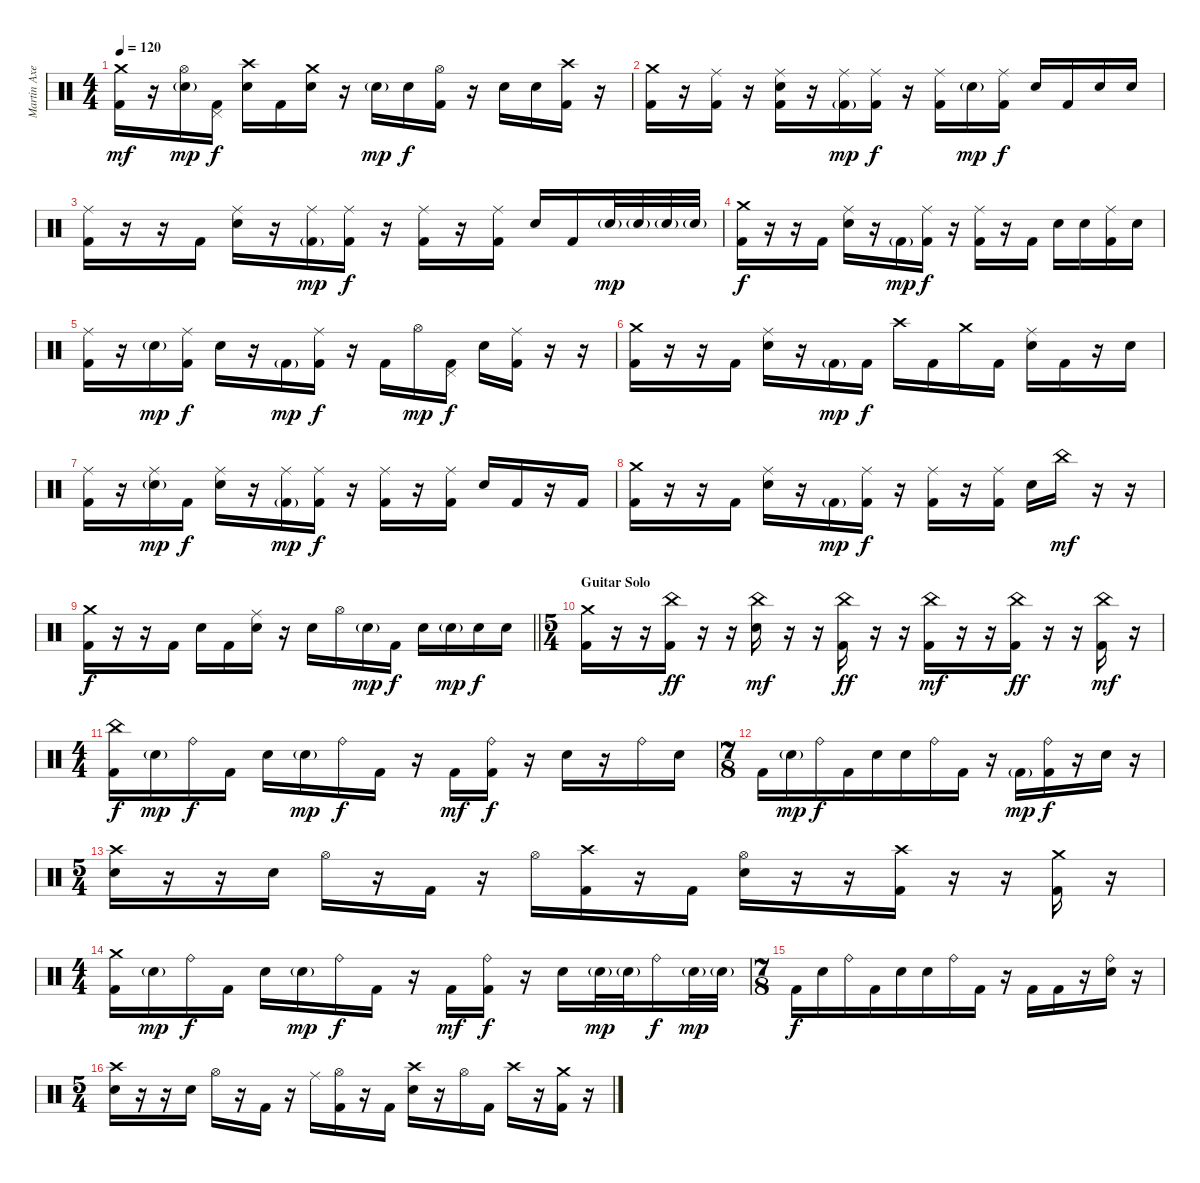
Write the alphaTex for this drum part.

\track ("Martin Axenrot - Drums" "Martin Axe") {instrument percussion}
\staff {score}
\articulation defaults
\ts (4 4)
\tempo 120
\clef neutral
\ks c
("Crash medium (hit)" "Kick (hit) 2").16{dy mf} r.16 ("Hi-Hat (open)" "Snare (hit) 2"{g}).16{dy mp} ("Pedal Hi-Hat (hit)" "Kick (hit) 2").16{dy f} ("Crash high (hit)" "Snare (hit) 2").16 "Kick (hit) 2".16 ("Crash medium (hit)" "Snare (hit) 2").16 r.16 "Snare (hit) 2"{g}.16{dy mp} "Snare (hit) 2".16{dy f} ("Hi-Hat (open)" "Kick (hit) 2").16 r.16 "Snare (hit) 2".16 "Snare (hit) 2".16 ("Crash high (hit)" "Kick (hit) 2").16 r.16 |
("Crash medium (hit)" "Kick (hit) 2").16 r.16 ("Ride (middle)" "Kick (hit) 2").16 r.16 ("Ride (middle)" "Snare (hit) 2" "Kick (hit) 2").16 r.16 ("Ride (middle)" "Kick (hit) 2"{g}).16{dy mp} ("Ride (middle)" "Kick (hit) 2").16{dy f} r.16 ("Ride (middle)" "Kick (hit) 2").16 "Snare (hit) 2"{g}.16{dy mp} ("Ride (middle)" "Kick (hit) 2").16{dy f} "Snare (hit) 2".16 "Kick (hit) 2".16 "Snare (hit) 2".16 "Snare (hit) 2".16 |
("Ride (middle)" "Kick (hit) 2").16 r.16 r.16 "Kick (hit) 2".16 ("Ride (middle)" "Snare (hit) 2").16 r.16 ("Ride (middle)" "Kick (hit) 2"{g}).16{dy mp} ("Ride (middle)" "Kick (hit) 2").16{dy f} r.16 ("Ride (middle)" "Kick (hit) 2").16 r.16 ("Ride (middle)" "Kick (hit) 2").16 "Snare (hit) 2".16 "Kick (hit) 2".16 "Snare (hit) 2"{g}.32{dy mp} "Snare (hit) 2"{g}.32 "Snare (hit) 2"{g}.32 "Snare (hit) 2"{g}.32 |
("Crash medium (hit)" "Kick (hit) 2").16{dy f} r.16 r.16 "Kick (hit) 2".16 ("Ride (middle)" "Snare (hit) 2").16 r.16 "Kick (hit) 2"{g}.16{dy mp} ("Ride (middle)" "Kick (hit) 2").16{dy f} r.16 ("Ride (middle)" "Kick (hit) 2").16 r.16 "Kick (hit) 2".16 "Snare (hit) 2".16 "Snare (hit) 2".16 ("Ride (middle)" "Kick (hit) 2").16 "Snare (hit) 2".16 |
("Ride (middle)" "Kick (hit) 2").16 r.16 "Snare (hit) 2"{g}.16{dy mp} ("Ride (middle)" "Kick (hit) 2").16{dy f} "Snare (hit) 2".16 r.16 "Kick (hit) 2"{g}.16{dy mp} ("Ride (middle)" "Kick (hit) 2").16{dy f} r.16 "Kick (hit) 2".16 "Hi-Hat (open)".16{dy mp} ("Pedal Hi-Hat (hit)" "Kick (hit) 2").16{dy f} "Snare (hit) 2".16 ("Ride (middle)" "Kick (hit) 2").16 r.16 r.16 |
("Crash medium (hit)" "Kick (hit) 2").16 r.16 r.16 "Kick (hit) 2".16 ("Ride (middle)" "Snare (hit) 2").16 r.16 "Kick (hit) 2"{g}.16{dy mp} "Kick (hit) 2".16{dy f} "Crash high (hit)".16 "Kick (hit) 2".16 "Crash medium (hit)".16 "Kick (hit) 2".16 ("Ride (middle)" "Snare (hit) 2").16 "Kick (hit) 2".16 r.16 "Snare (hit) 2".16 |
("Ride (middle)" "Kick (hit) 2").16 r.16 ("Ride (middle)" "Snare (hit) 2"{g}).16{dy mp} "Kick (hit) 2".16{dy f} ("Ride (middle)" "Snare (hit) 2").16 r.16 ("Ride (middle)" "Kick (hit) 2"{g}).16{dy mp} ("Ride (middle)" "Kick (hit) 2").16{dy f} r.16 ("Ride (middle)" "Kick (hit) 2").16 r.16 ("Ride (middle)" "Kick (hit) 2").16 "Snare (hit) 2".16 "Kick (hit) 2".16 r.16 "Kick (hit) 2".16 |
("Crash medium (hit)" "Kick (hit) 2").16 r.16 r.16 "Kick (hit) 2".16 ("Ride (middle)" "Snare (hit) 2").16 r.16 "Kick (hit) 2"{g}.16{dy mp} ("Ride (middle)" "Kick (hit) 2").16{dy f} r.16 ("Ride (middle)" "Kick (hit) 2").16 r.16 ("Ride (middle)" "Kick (hit) 2").16 "Snare (hit) 2".16 "China (hit)".16{dy mf} r.16 r.16 |
\barLineRight lightlight
("Crash medium (hit)" "Kick (hit) 2").16{dy f} r.16 r.16 "Kick (hit) 2".16 "Snare (hit) 2".16 "Kick (hit) 2".16 ("Ride (middle)" "Snare (hit) 2").16 r.16 "Snare (hit) 2".16 "Hi-Hat (open)".16 "Snare (hit) 2"{g}.16{dy mp} "Kick (hit) 2".16{dy f} "Snare (hit) 2".16 "Snare (hit) 2"{g}.16{dy mp} "Snare (hit) 2".16{dy f} "Snare (hit) 2".16 |
\ts (5 4)
\section ("" "Guitar Solo")
("Crash medium (hit)" "Kick (hit) 2").16 r.16 r.16 ("China (hit)" "Kick (hit) 2").16{dy ff} r.16 r.16 ("China (hit)" "Snare (hit) 2").16{dy mf} r.16 r.16 ("China (hit)" "Kick (hit) 2").16{dy ff} r.16 r.16 ("China (hit)" "Kick (hit) 2").16{dy mf} r.16 r.16 ("China (hit)" "Kick (hit) 2").16{dy ff} r.16 r.16 ("China (hit)" "Kick (hit) 2").16{dy mf} r.16 |
\ts (4 4)
("China (hit)" "Kick (hit) 2").16{dy f} "Snare (hit) 2"{g}.16{dy mp} "Ride (bell)".16{dy f} "Kick (hit) 2".16 "Snare (hit) 2".16 "Snare (hit) 2"{g}.16{dy mp} "Ride (bell)".16{dy f} "Kick (hit) 2".16 r.16 "Kick (hit) 2".16{dy mf} ("Ride (bell)" "Kick (hit) 2").16{dy f} r.16 "Snare (hit) 2".16 r.16 "Ride (bell)".16 "Snare (hit) 2".16 |
\ts (7 8)
"Kick (hit) 2".16 "Snare (hit) 2"{g}.16{dy mp} "Ride (bell)".16{dy f} "Kick (hit) 2".16 "Snare (hit) 2".16 "Snare (hit) 2".16 "Ride (bell)".16 "Kick (hit) 2".16 r.16 "Kick (hit) 2"{g}.16{dy mp} ("Ride (bell)" "Kick (hit) 2").16{dy f} r.16 "Snare (hit) 2".16 r.16 |
\ts (5 4)
("Crash high (hit)" "Snare (hit) 2").16 r.16 r.16 "Snare (hit) 2".16 "Hi-Hat (open)".16 r.16 "Kick (hit) 2".16 r.16 "Hi-Hat (open)".16 ("Crash high (hit)" "Kick (hit) 2").16 r.16 "Kick (hit) 2".16 ("Hi-Hat (open)" "Snare (hit) 2").16 r.16 r.16 ("Crash high (hit)" "Kick (hit) 2").16 r.16 r.16 ("Crash medium (hit)" "Kick (hit) 2").16 r.16 |
\ts (4 4)
("Crash medium (hit)" "Kick (hit) 2").16 "Snare (hit) 2"{g}.16{dy mp} "Ride (bell)".16{dy f} "Kick (hit) 2".16 "Snare (hit) 2".16 "Snare (hit) 2"{g}.16{dy mp} "Ride (bell)".16{dy f} "Kick (hit) 2".16 r.16 "Kick (hit) 2".16{dy mf} ("Ride (bell)" "Kick (hit) 2").16{dy f} r.16 "Snare (hit) 2".16 "Snare (hit) 2"{g}.32{dy mp} "Snare (hit) 2"{g}.32 "Ride (bell)".16{dy f} "Snare (hit) 2"{g}.32{dy mp} "Snare (hit) 2"{g}.32 |
\ts (7 8)
"Kick (hit) 2".16{dy f} "Snare (hit) 2".16 "Ride (bell)".16 "Kick (hit) 2".16 "Snare (hit) 2".16 "Snare (hit) 2".16 "Ride (bell)".16 "Kick (hit) 2".16 r.16 "Kick (hit) 2".16 "Kick (hit) 2".16 r.16 ("Ride (bell)" "Snare (hit) 2").16 r.16 |
\ts (5 4)
("Crash high (hit)" "Snare (hit) 2").16 r.16 r.16 "Snare (hit) 2".16 "Hi-Hat (open)".16 r.16 "Kick (hit) 2".16 r.16 "Ride (middle)".16 ("Hi-Hat (open)" "Kick (hit) 2").16 r.16 "Kick (hit) 2".16 ("Crash high (hit)" "Snare (hit) 2").16 r.16 "Hi-Hat (open)".16 "Kick (hit) 2".16 "Crash high (hit)".16 r.16 ("Crash medium (hit)" "Kick (hit) 2").16 r.16
